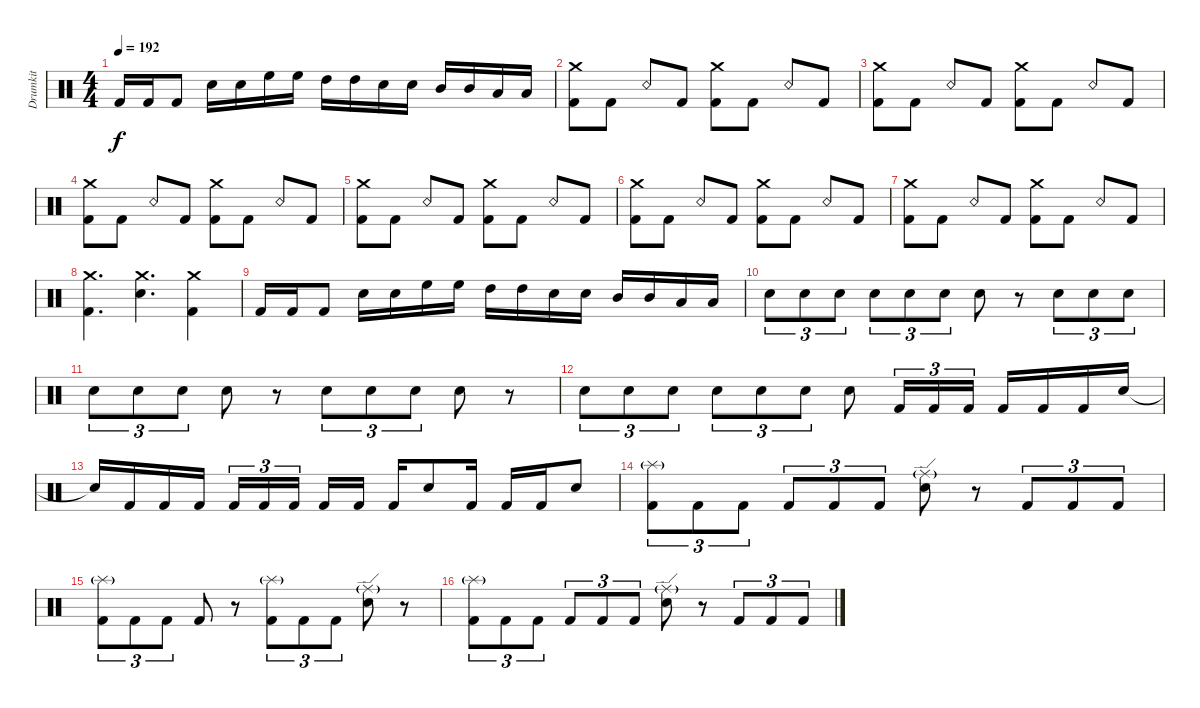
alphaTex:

\track ("Drumkit" "Drumkit") {instrument percussion}
\staff {score}
\articulation defaults
\ts (4 4)
\tempo 192
\clef neutral
\ks c "Kick (hit) 2".16{dy f} "Kick (hit) 2".16 "Kick (hit) 2".8 "Snare (hit) 2".16 "Snare (hit) 2".16 "High Floor Tom (hit)".16 "High Floor Tom (hit)".16 "High Tom (hit)".16 "High Tom (hit)".16 "Snare (hit) 2".16 "Snare (hit) 2".16 "Mid Tom (hit)".16 "Mid Tom (hit)".16 "Low Tom (hit)".16 "Low Tom (hit)".16
|
("Crash medium (hit)" "Kick (hit) 2").8 "Kick (hit) 2".8 "Snare (rim shot)".8 "Kick (hit) 2".8 ("Kick (hit) 2" "Crash medium (hit)").8 "Kick (hit) 2".8 "Snare (rim shot)".8 "Kick (hit) 2".8 |
("Crash medium (hit)" "Kick (hit) 2").8 "Kick (hit) 2".8 "Snare (rim shot)".8 "Kick (hit) 2".8 ("Kick (hit) 2" "Crash medium (hit)").8 "Kick (hit) 2".8 "Snare (rim shot)".8 "Kick (hit) 2".8 |
("Crash medium (hit)" "Kick (hit) 2").8 "Kick (hit) 2".8 "Snare (rim shot)".8 "Kick (hit) 2".8 ("Kick (hit) 2" "Crash medium (hit)").8 "Kick (hit) 2".8 "Snare (rim shot)".8 "Kick (hit) 2".8 |
("Crash medium (hit)" "Kick (hit) 2").8 "Kick (hit) 2".8 "Snare (rim shot)".8 "Kick (hit) 2".8 ("Kick (hit) 2" "Crash medium (hit)").8 "Kick (hit) 2".8 "Snare (rim shot)".8 "Kick (hit) 2".8 |
("Crash medium (hit)" "Kick (hit) 2").8 "Kick (hit) 2".8 "Snare (rim shot)".8 "Kick (hit) 2".8 ("Kick (hit) 2" "Crash medium (hit)").8 "Kick (hit) 2".8 "Snare (rim shot)".8 "Kick (hit) 2".8 |
("Crash medium (hit)" "Kick (hit) 2").8 "Kick (hit) 2".8 "Snare (rim shot)".8 "Kick (hit) 2".8 ("Kick (hit) 2" "Crash medium (hit)").8 "Kick (hit) 2".8 "Snare (rim shot)".8 "Kick (hit) 2".8 |
("Crash medium (hit)" "Kick (hit) 2").4{d} ("Crash medium (hit)" "Snare (hit) 2").4{d} ("Crash medium (hit)" "Kick (hit) 2").4 |
"Kick (hit) 2".16 "Kick (hit) 2".16 "Kick (hit) 2".8 "Snare (hit) 2".16 "Snare (hit) 2".16 "High Floor Tom (hit)".16 "High Floor Tom (hit)".16 "High Tom (hit)".16 "High Tom (hit)".16 "Snare (hit) 2".16 "Snare (hit) 2".16 "Mid Tom (hit)".16 "Mid Tom (hit)".16 "Low Tom (hit)".16 "Low Tom (hit)".16 |
"Snare (hit) 2".8{tu (3 2)} "Snare (hit) 2".8{tu (3 2)} "Snare (hit) 2".8{tu (3 2)} "Snare (hit) 2".8{tu (3 2)} "Snare (hit) 2".8{tu (3 2)} "Snare (hit) 2".8{tu (3 2)} "Snare (hit) 2".8 r.8 "Snare (hit) 2".8{tu (3 2)} "Snare (hit) 2".8{tu (3 2)} "Snare (hit) 2".8{tu (3 2)} |
"Snare (hit) 2".8{tu (3 2)} "Snare (hit) 2".8{tu (3 2)} "Snare (hit) 2".8{tu (3 2)} "Snare (hit) 2".8 r.8 "Snare (hit) 2".8{tu (3 2)} "Snare (hit) 2".8{tu (3 2)} "Snare (hit) 2".8{tu (3 2)} "Snare (hit) 2".8 r.8 |
"Snare (hit) 2".8{tu (3 2)} "Snare (hit) 2".8{tu (3 2)} "Snare (hit) 2".8{tu (3 2)} "Snare (hit) 2".8{tu (3 2)} "Snare (hit) 2".8{tu (3 2)} "Snare (hit) 2".8{tu (3 2)} "Snare (hit) 2".8 "Kick (hit) 2".16{tu (3 2)} "Kick (hit) 2".16{tu (3 2)} "Kick (hit) 2".16{tu (3 2)} "Kick (hit) 2".16 "Kick (hit) 2".16 "Kick (hit) 2".16 "Snare (hit) 2".16 |
"Snare (hit) 2"{t}.16 "Kick (hit) 2".16 "Kick (hit) 2".16 "Kick (hit) 2".16 "Kick (hit) 2".16{tu (3 2)} "Kick (hit) 2".16{tu (3 2)} "Kick (hit) 2".16{tu (3 2)} "Kick (hit) 2".16 "Kick (hit) 2".16 "Kick (hit) 2".16 "Snare (hit) 2".8 "Kick (hit) 2".16 "Kick (hit) 2".16 "Kick (hit) 2".16 "Snare (hit) 2".8 |
("Kick (hit) 2" "Splash (hit)"{g}).8{tu (3 2)} "Kick (hit) 2".8{tu (3 2)} "Kick (hit) 2".8{tu (3 2)} "Kick (hit) 2".8{tu (3 2)} "Kick (hit) 2".8{tu (3 2)} "Kick (hit) 2".8{tu (3 2)} ("Snare (hit) 2" "Ride (edge)"{g}).8 r.8 "Kick (hit) 2".8{tu (3 2)} "Kick (hit) 2".8{tu (3 2)} "Kick (hit) 2".8{tu (3 2)} |
("Splash (hit)"{g} "Kick (hit) 2").8{tu (3 2)} "Kick (hit) 2".8{tu (3 2)} "Kick (hit) 2".8{tu (3 2)} "Kick (hit) 2".8 r.8 ("Kick (hit) 2" "Splash (hit)"{g}).8{tu (3 2)} "Kick (hit) 2".8{tu (3 2)} "Kick (hit) 2".8{tu (3 2)} ("Snare (hit) 2" "Ride (edge)"{g}).8 r.8 |
("Kick (hit) 2" "Splash (hit)"{g}).8{tu (3 2)} "Kick (hit) 2".8{tu (3 2)} "Kick (hit) 2".8{tu (3 2)} "Kick (hit) 2".8{tu (3 2)} "Kick (hit) 2".8{tu (3 2)} "Kick (hit) 2".8{tu (3 2)} ("Snare (hit) 2" "Ride (edge)"{g}).8 r.8 "Kick (hit) 2".8{tu (3 2)} "Kick (hit) 2".8{tu (3 2)} "Kick (hit) 2".8{tu (3 2)}
